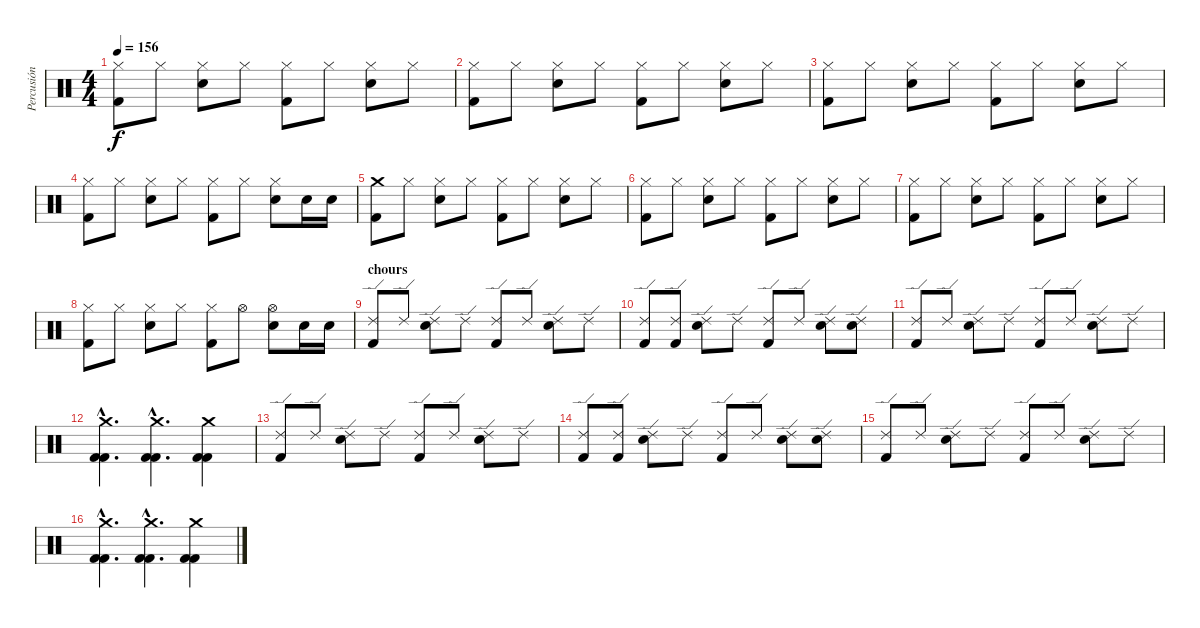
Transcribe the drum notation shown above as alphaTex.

\track ("Percusión" "Percusión") {instrument percussion}
\staff {score}
\articulation defaults
\ts (4 4)
\tempo 156
\clef neutral
\ks c
("Hi-Hat (closed)" "Kick (hit) 2").8{dy f} "Hi-Hat (closed)".8 ("Hi-Hat (closed)" "Electric Snare (hit)").8 "Hi-Hat (closed)".8 ("Hi-Hat (closed)" "Kick (hit) 2").8 "Hi-Hat (closed)".8 ("Hi-Hat (closed)" "Electric Snare (hit)").8 "Hi-Hat (closed)".8 |
("Hi-Hat (closed)" "Kick (hit) 2").8 "Hi-Hat (closed)".8 ("Hi-Hat (closed)" "Electric Snare (hit)").8 "Hi-Hat (closed)".8 ("Hi-Hat (closed)" "Kick (hit) 2").8 "Hi-Hat (closed)".8 ("Hi-Hat (closed)" "Electric Snare (hit)").8 "Hi-Hat (closed)".8 |
("Hi-Hat (closed)" "Kick (hit) 2").8 "Hi-Hat (closed)".8 ("Hi-Hat (closed)" "Electric Snare (hit)").8 "Hi-Hat (closed)".8 ("Hi-Hat (closed)" "Kick (hit) 2").8 "Hi-Hat (closed)".8 ("Hi-Hat (closed)" "Electric Snare (hit)").8 "Hi-Hat (closed)".8 |
("Hi-Hat (closed)" "Kick (hit) 2").8 "Hi-Hat (closed)".8 ("Hi-Hat (closed)" "Electric Snare (hit)").8 "Hi-Hat (closed)".8 ("Hi-Hat (closed)" "Kick (hit) 2").8 "Hi-Hat (closed)".8 ("Hi-Hat (closed)" "Electric Snare (hit)").8 "Electric Snare (hit)".16 "Electric Snare (hit)".16 |
("Crash medium (hit)" "Kick (hit) 2").8 "Hi-Hat (closed)".8 ("Hi-Hat (closed)" "Electric Snare (hit)").8 "Hi-Hat (closed)".8 ("Hi-Hat (closed)" "Kick (hit) 2").8 "Hi-Hat (closed)".8 ("Hi-Hat (closed)" "Electric Snare (hit)").8 "Hi-Hat (closed)".8 |
("Hi-Hat (closed)" "Kick (hit) 2").8 "Hi-Hat (closed)".8 ("Hi-Hat (closed)" "Electric Snare (hit)").8 "Hi-Hat (closed)".8 ("Hi-Hat (closed)" "Kick (hit) 2").8 "Hi-Hat (closed)".8 ("Hi-Hat (closed)" "Electric Snare (hit)").8 "Hi-Hat (closed)".8 |
("Hi-Hat (closed)" "Kick (hit) 2").8 "Hi-Hat (closed)".8 ("Hi-Hat (closed)" "Electric Snare (hit)").8 "Hi-Hat (closed)".8 ("Hi-Hat (closed)" "Kick (hit) 2").8 "Hi-Hat (closed)".8 ("Hi-Hat (closed)" "Electric Snare (hit)").8 "Hi-Hat (closed)".8 |
("Hi-Hat (closed)" "Kick (hit) 2").8 "Hi-Hat (closed)".8 ("Hi-Hat (closed)" "Electric Snare (hit)").8 "Hi-Hat (closed)".8 ("Hi-Hat (closed)" "Kick (hit) 2").8 "Hi-Hat (open)".8 ("Hi-Hat (open)" "Electric Snare (hit)").8 "Electric Snare (hit)".16 "Electric Snare (hit)".16 |
\section ("" "chours")
("Ride (edge) 2" "Kick (hit) 2").8 "Ride (edge) 2".8 ("Ride (edge) 2" "Electric Snare (hit)").8 "Ride (edge) 2".8 ("Ride (edge) 2" "Kick (hit) 2").8 "Ride (edge) 2".8 ("Ride (edge) 2" "Electric Snare (hit)").8 "Ride (edge) 2".8 |
("Ride (edge) 2" "Kick (hit) 2").8 ("Ride (edge) 2" "Kick (hit) 2").8 ("Ride (edge) 2" "Electric Snare (hit)").8 "Ride (edge) 2".8 ("Ride (edge) 2" "Kick (hit) 2").8 "Ride (edge) 2".8 ("Ride (edge) 2" "Electric Snare (hit)").8 ("Ride (edge) 2" "Electric Snare (hit)").8 |
("Ride (edge) 2" "Kick (hit) 2").8 "Ride (edge) 2".8 ("Ride (edge) 2" "Electric Snare (hit)").8 "Ride (edge) 2".8 ("Ride (edge) 2" "Kick (hit) 2").8 "Ride (edge) 2".8 ("Ride (edge) 2" "Electric Snare (hit)").8 "Ride (edge) 2".8 |
("Crash medium (hit)"{hac} "Kick (hit) 2"{hac} "Kick (hit) 2"{hac}).4{d} ("Crash medium (hit)"{hac} "Kick (hit) 2"{hac} "Kick (hit) 2"{hac}).4{d} ("Crash medium (hit)" "Kick (hit) 2" "Kick (hit) 2").4 |
("Ride (edge) 2" "Kick (hit) 2").8 "Ride (edge) 2".8 ("Ride (edge) 2" "Electric Snare (hit)").8 "Ride (edge) 2".8 ("Ride (edge) 2" "Kick (hit) 2").8 "Ride (edge) 2".8 ("Ride (edge) 2" "Electric Snare (hit)").8 "Ride (edge) 2".8 |
("Ride (edge) 2" "Kick (hit) 2").8 ("Ride (edge) 2" "Kick (hit) 2").8 ("Ride (edge) 2" "Electric Snare (hit)").8 "Ride (edge) 2".8 ("Ride (edge) 2" "Kick (hit) 2").8 "Ride (edge) 2".8 ("Ride (edge) 2" "Electric Snare (hit)").8 ("Ride (edge) 2" "Electric Snare (hit)").8 |
("Ride (edge) 2" "Kick (hit) 2").8 "Ride (edge) 2".8 ("Ride (edge) 2" "Electric Snare (hit)").8 "Ride (edge) 2".8 ("Ride (edge) 2" "Kick (hit) 2").8 "Ride (edge) 2".8 ("Ride (edge) 2" "Electric Snare (hit)").8 "Ride (edge) 2".8 |
("Crash medium (hit)"{hac} "Kick (hit) 2"{hac} "Kick (hit) 2"{hac}).4{d} ("Crash medium (hit)"{hac} "Kick (hit) 2"{hac} "Kick (hit) 2"{hac}).4{d} ("Crash medium (hit)" "Kick (hit) 2" "Kick (hit) 2").4
